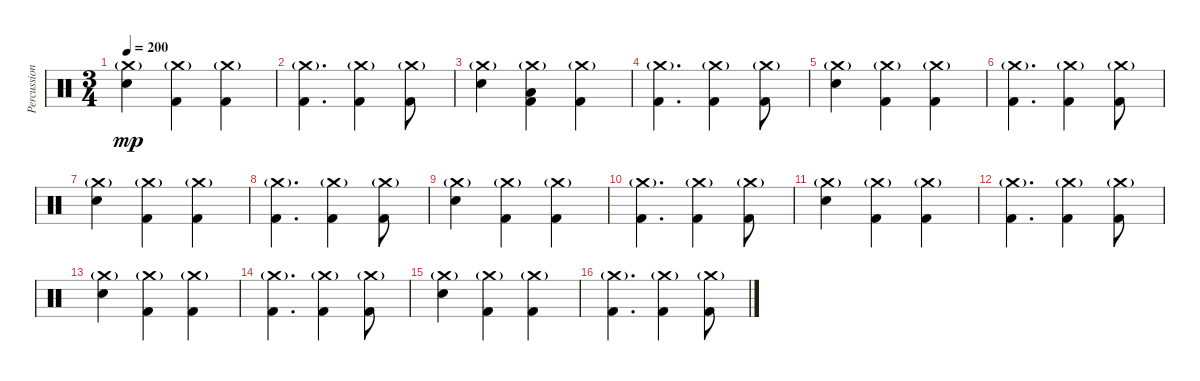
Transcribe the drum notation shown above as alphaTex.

\track ("Percussions" "Percussion") {instrument percussion}
\staff {score}
\articulation defaults
\ts (3 4)
\tempo 200
\clef neutral
\ks c
("Crash medium (hit)"{g} "Electric Snare (hit)").4{dy mp} ("Crash medium (hit)"{g} "Kick (hit) 2").4 ("Crash medium (hit)"{g} "Kick (hit) 2").4 |
("Crash medium (hit)"{g} "Kick (hit) 2").4{d} ("Crash medium (hit)"{g} "Kick (hit) 2").4 ("Crash medium (hit)"{g} "Kick (hit) 2").8 |
("Crash medium (hit)"{g} "Electric Snare (hit)").4 ("Crash medium (hit)"{g} "Low Tom (hit)" "Kick (hit) 2").4 ("Crash medium (hit)"{g} "Kick (hit) 2").4 |
("Crash medium (hit)"{g} "Kick (hit) 2").4{d} ("Crash medium (hit)"{g} "Kick (hit) 2").4 ("Crash medium (hit)"{g} "Kick (hit) 2").8 |
("Crash medium (hit)"{g} "Electric Snare (hit)").4 ("Crash medium (hit)"{g} "Kick (hit) 2").4 ("Crash medium (hit)"{g} "Kick (hit) 2").4 |
("Crash medium (hit)"{g} "Kick (hit) 2").4{d} ("Crash medium (hit)"{g} "Kick (hit) 2").4 ("Crash medium (hit)"{g} "Kick (hit) 2").8 |
("Crash medium (hit)"{g} "Electric Snare (hit)").4 ("Crash medium (hit)"{g} "Kick (hit) 2").4 ("Crash medium (hit)"{g} "Kick (hit) 2").4 |
("Crash medium (hit)"{g} "Kick (hit) 2").4{d} ("Crash medium (hit)"{g} "Kick (hit) 2").4 ("Crash medium (hit)"{g} "Kick (hit) 2").8 |
("Crash medium (hit)"{g} "Electric Snare (hit)").4 ("Crash medium (hit)"{g} "Kick (hit) 2").4 ("Crash medium (hit)"{g} "Kick (hit) 2").4 |
("Crash medium (hit)"{g} "Kick (hit) 2").4{d} ("Crash medium (hit)"{g} "Kick (hit) 2").4 ("Crash medium (hit)"{g} "Kick (hit) 2").8 |
("Crash medium (hit)"{g} "Electric Snare (hit)").4 ("Crash medium (hit)"{g} "Kick (hit) 2").4 ("Crash medium (hit)"{g} "Kick (hit) 2").4 |
("Crash medium (hit)"{g} "Kick (hit) 2").4{d} ("Crash medium (hit)"{g} "Kick (hit) 2").4 ("Crash medium (hit)"{g} "Kick (hit) 2").8 |
("Crash medium (hit)"{g} "Electric Snare (hit)").4 ("Crash medium (hit)"{g} "Kick (hit) 2").4 ("Crash medium (hit)"{g} "Kick (hit) 2").4 |
("Crash medium (hit)"{g} "Kick (hit) 2").4{d} ("Crash medium (hit)"{g} "Kick (hit) 2").4 ("Crash medium (hit)"{g} "Kick (hit) 2").8 |
("Crash medium (hit)"{g} "Electric Snare (hit)").4 ("Crash medium (hit)"{g} "Kick (hit) 2").4 ("Crash medium (hit)"{g} "Kick (hit) 2").4 |
("Crash medium (hit)"{g} "Kick (hit) 2").4{d} ("Crash medium (hit)"{g} "Kick (hit) 2").4 ("Crash medium (hit)"{g} "Kick (hit) 2").8
